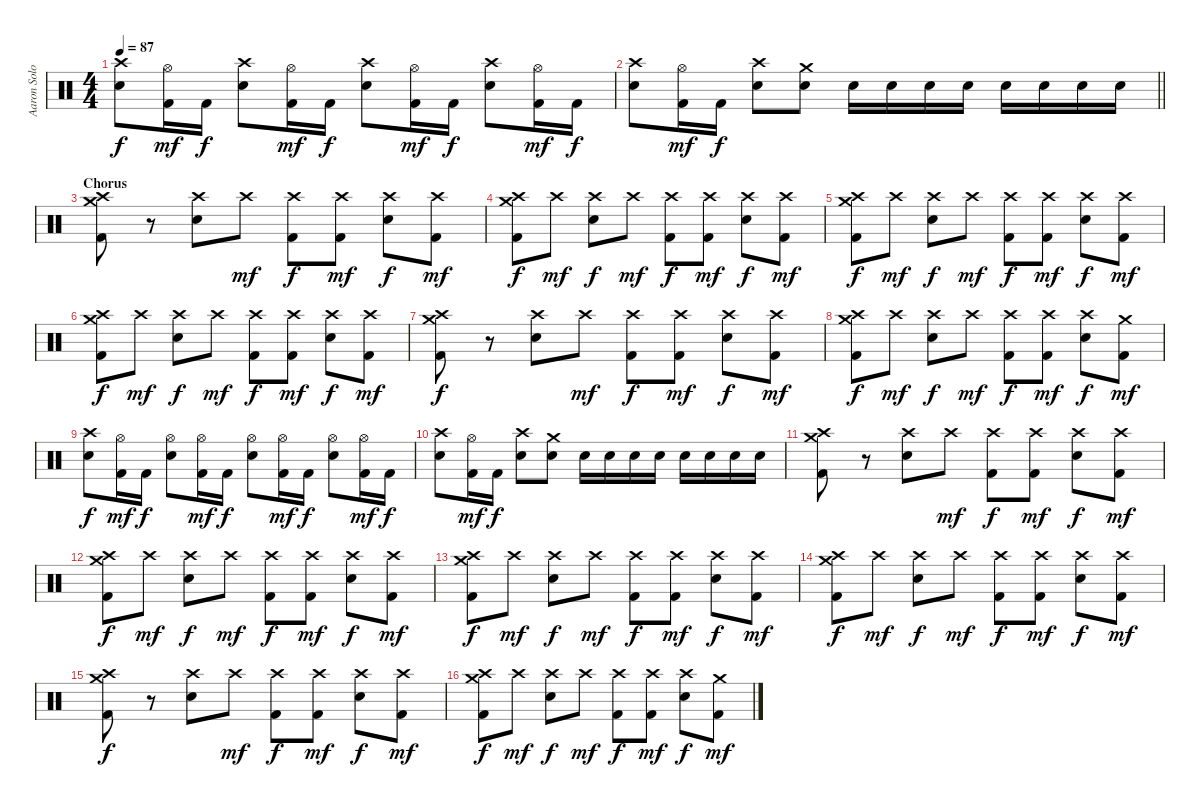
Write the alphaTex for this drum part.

\track ("Aaron Solowoniuk" "Aaron Solo") {instrument percussion}
\staff {score}
\articulation defaults
\ts (4 4)
\tempo 87
\clef neutral
\ks c
("Crash high (hit)" "Snare (hit) 2").8{dy f} ("Hi-Hat (open)" "Kick (hit) 2").16{dy mf} "Kick (hit) 2".16{dy f} ("Crash high (hit)" "Snare (hit) 2").8 ("Hi-Hat (open)" "Kick (hit) 2").16{dy mf} "Kick (hit) 2".16{dy f} ("Crash high (hit)" "Snare (hit) 2").8 ("Hi-Hat (open)" "Kick (hit) 2").16{dy mf} "Kick (hit) 2".16{dy f} ("Crash high (hit)" "Snare (hit) 2").8 ("Hi-Hat (open)" "Kick (hit) 2").16{dy mf} "Kick (hit) 2".16{dy f} |
\barLineRight lightlight
("Crash high (hit)" "Snare (hit) 2").8 ("Hi-Hat (open)" "Kick (hit) 2").16{dy mf} "Kick (hit) 2".16{dy f} ("Crash high (hit)" "Snare (hit) 2").8 ("Crash medium (hit)" "Snare (hit) 2").8 "Snare (hit) 2".16 "Snare (hit) 2".16 "Snare (hit) 2".16 "Snare (hit) 2".16 "Snare (hit) 2".16 "Snare (hit) 2".16 "Snare (hit) 2".16 "Snare (hit) 2".16 |
\section ("" "Chorus")
("Crash high (hit)" "Crash medium (hit)" "Kick (hit) 2").8 r.8 ("Crash high (hit)" "Snare (hit) 2").8 "Crash high (hit)".8{dy mf} ("Crash high (hit)" "Kick (hit) 2").8{dy f} ("Crash high (hit)" "Kick (hit) 2").8{dy mf} ("Crash high (hit)" "Snare (hit) 2").8{dy f} ("Crash high (hit)" "Kick (hit) 2").8{dy mf} |
("Crash high (hit)" "Crash medium (hit)" "Kick (hit) 2").8{dy f} "Crash high (hit)".8{dy mf} ("Crash high (hit)" "Snare (hit) 2").8{dy f} "Crash high (hit)".8{dy mf} ("Crash high (hit)" "Kick (hit) 2").8{dy f} ("Crash high (hit)" "Kick (hit) 2").8{dy mf} ("Crash high (hit)" "Snare (hit) 2").8{dy f} ("Crash high (hit)" "Kick (hit) 2").8{dy mf} |
("Crash high (hit)" "Crash medium (hit)" "Kick (hit) 2").8{dy f} "Crash high (hit)".8{dy mf} ("Crash high (hit)" "Snare (hit) 2").8{dy f} "Crash high (hit)".8{dy mf} ("Crash high (hit)" "Kick (hit) 2").8{dy f} ("Crash high (hit)" "Kick (hit) 2").8{dy mf} ("Crash high (hit)" "Snare (hit) 2").8{dy f} ("Crash high (hit)" "Kick (hit) 2").8{dy mf} |
("Crash high (hit)" "Crash medium (hit)" "Kick (hit) 2").8{dy f} "Crash high (hit)".8{dy mf} ("Crash high (hit)" "Snare (hit) 2").8{dy f} "Crash high (hit)".8{dy mf} ("Crash high (hit)" "Kick (hit) 2").8{dy f} ("Crash high (hit)" "Kick (hit) 2").8{dy mf} ("Crash high (hit)" "Snare (hit) 2").8{dy f} ("Crash high (hit)" "Kick (hit) 2").8{dy mf} |
("Crash high (hit)" "Crash medium (hit)" "Kick (hit) 2").8{dy f} r.8 ("Crash high (hit)" "Snare (hit) 2").8 "Crash high (hit)".8{dy mf} ("Crash high (hit)" "Kick (hit) 2").8{dy f} ("Crash high (hit)" "Kick (hit) 2").8{dy mf} ("Crash high (hit)" "Snare (hit) 2").8{dy f} ("Crash high (hit)" "Kick (hit) 2").8{dy mf} |
("Crash high (hit)" "Crash medium (hit)" "Kick (hit) 2").8{dy f} "Crash high (hit)".8{dy mf} ("Crash high (hit)" "Snare (hit) 2").8{dy f} "Crash high (hit)".8{dy mf} ("Crash high (hit)" "Kick (hit) 2").8{dy f} ("Crash high (hit)" "Kick (hit) 2").8{dy mf} ("Crash high (hit)" "Snare (hit) 2").8{dy f} ("Crash medium (hit)" "Kick (hit) 2").8{dy mf} |
("Crash high (hit)" "Snare (hit) 2").8{dy f} ("Hi-Hat (open)" "Kick (hit) 2").16{dy mf} "Kick (hit) 2".16{dy f} ("Hi-Hat (open)" "Snare (hit) 2").8 ("Hi-Hat (open)" "Kick (hit) 2").16{dy mf} "Kick (hit) 2".16{dy f} ("Hi-Hat (open)" "Snare (hit) 2").8 ("Hi-Hat (open)" "Kick (hit) 2").16{dy mf} "Kick (hit) 2".16{dy f} ("Hi-Hat (open)" "Snare (hit) 2").8 ("Hi-Hat (open)" "Kick (hit) 2").16{dy mf} "Kick (hit) 2".16{dy f} |
("Crash high (hit)" "Snare (hit) 2").8 ("Hi-Hat (open)" "Kick (hit) 2").16{dy mf} "Kick (hit) 2".16{dy f} ("Crash high (hit)" "Snare (hit) 2").8 ("Crash medium (hit)" "Snare (hit) 2").8 "Snare (hit) 2".16 "Snare (hit) 2".16 "Snare (hit) 2".16 "Snare (hit) 2".16 "Snare (hit) 2".16 "Snare (hit) 2".16 "Snare (hit) 2".16 "Snare (hit) 2".16 |
("Crash high (hit)" "Crash medium (hit)" "Kick (hit) 2").8 r.8 ("Crash high (hit)" "Snare (hit) 2").8 "Crash high (hit)".8{dy mf} ("Crash high (hit)" "Kick (hit) 2").8{dy f} ("Crash high (hit)" "Kick (hit) 2").8{dy mf} ("Crash high (hit)" "Snare (hit) 2").8{dy f} ("Crash high (hit)" "Kick (hit) 2").8{dy mf} |
("Crash high (hit)" "Crash medium (hit)" "Kick (hit) 2").8{dy f} "Crash high (hit)".8{dy mf} ("Crash high (hit)" "Snare (hit) 2").8{dy f} "Crash high (hit)".8{dy mf} ("Crash high (hit)" "Kick (hit) 2").8{dy f} ("Crash high (hit)" "Kick (hit) 2").8{dy mf} ("Crash high (hit)" "Snare (hit) 2").8{dy f} ("Crash high (hit)" "Kick (hit) 2").8{dy mf} |
("Crash high (hit)" "Crash medium (hit)" "Kick (hit) 2").8{dy f} "Crash high (hit)".8{dy mf} ("Crash high (hit)" "Snare (hit) 2").8{dy f} "Crash high (hit)".8{dy mf} ("Crash high (hit)" "Kick (hit) 2").8{dy f} ("Crash high (hit)" "Kick (hit) 2").8{dy mf} ("Crash high (hit)" "Snare (hit) 2").8{dy f} ("Crash high (hit)" "Kick (hit) 2").8{dy mf} |
("Crash high (hit)" "Crash medium (hit)" "Kick (hit) 2").8{dy f} "Crash high (hit)".8{dy mf} ("Crash high (hit)" "Snare (hit) 2").8{dy f} "Crash high (hit)".8{dy mf} ("Crash high (hit)" "Kick (hit) 2").8{dy f} ("Crash high (hit)" "Kick (hit) 2").8{dy mf} ("Crash high (hit)" "Snare (hit) 2").8{dy f} ("Crash high (hit)" "Kick (hit) 2").8{dy mf} |
("Crash high (hit)" "Crash medium (hit)" "Kick (hit) 2").8{dy f} r.8 ("Crash high (hit)" "Snare (hit) 2").8 "Crash high (hit)".8{dy mf} ("Crash high (hit)" "Kick (hit) 2").8{dy f} ("Crash high (hit)" "Kick (hit) 2").8{dy mf} ("Crash high (hit)" "Snare (hit) 2").8{dy f} ("Crash high (hit)" "Kick (hit) 2").8{dy mf} |
("Crash high (hit)" "Crash medium (hit)" "Kick (hit) 2").8{dy f} "Crash high (hit)".8{dy mf} ("Crash high (hit)" "Snare (hit) 2").8{dy f} "Crash high (hit)".8{dy mf} ("Crash high (hit)" "Kick (hit) 2").8{dy f} ("Crash high (hit)" "Kick (hit) 2").8{dy mf} ("Crash high (hit)" "Snare (hit) 2").8{dy f} ("Crash medium (hit)" "Kick (hit) 2").8{dy mf}
